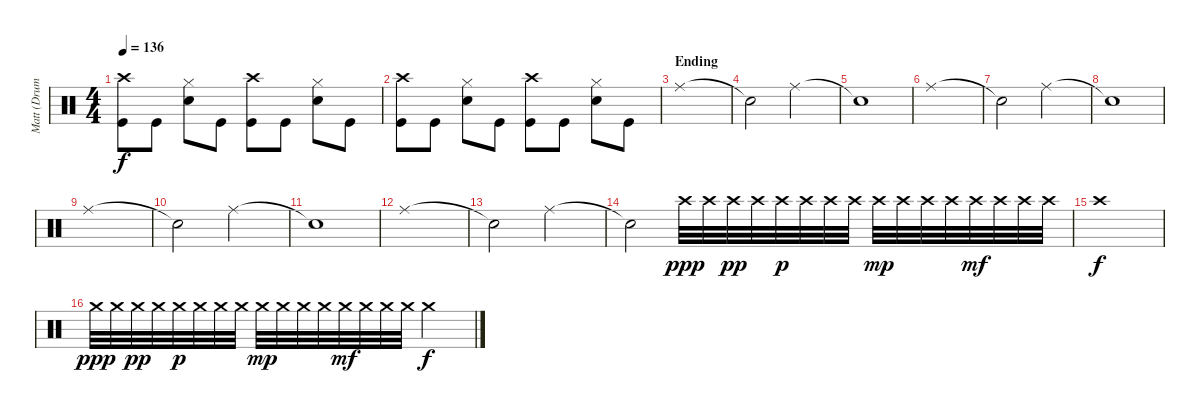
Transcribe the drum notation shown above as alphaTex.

\track ("Matt (Drums)" "Matt (Drum") {instrument percussion}
\staff {score}
\articulation defaults
\ts (4 4)
\tempo 136
\clef neutral
\ks c
("Crash high (hit)" "Kick (hit)").8{dy f} "Kick (hit)".8 ("Hi-Hat (closed)" "Electric Snare (hit)").8 "Kick (hit)".8 ("Crash high (hit)" "Kick (hit)").8 "Kick (hit)".8 ("Hi-Hat (closed)" "Electric Snare (hit)").8 "Kick (hit)".8 |
("Crash high (hit)" "Kick (hit)").8 "Kick (hit)".8 ("Hi-Hat (closed)" "Electric Snare (hit)").8 "Kick (hit)".8 ("Crash high (hit)" "Kick (hit)").8 "Kick (hit)".8 ("Hi-Hat (closed)" "Electric Snare (hit)").8 "Kick (hit)".8 |
\section ("" "Ending")
"Ride (middle)".1 |
"Snare (hit)"{t}.2 "Ride (middle)".2 |
"Snare (hit)"{t}.1 |
"Ride (middle)".1 |
"Snare (hit)"{t}.2 "Ride (middle)".2 |
"Snare (hit)"{t}.1 |
"Ride (middle)".1 |
"Snare (hit)"{t}.2 "Ride (middle)".2 |
"Snare (hit)"{t}.1 |
"Ride (middle)".1 |
"Snare (hit)"{t}.2 "Ride (middle)".2 |
"Snare (hit)"{t}.2 "Crash high (hit)".32{dy ppp} "Crash high (hit)".32 "Crash high (hit)".32{dy pp} "Crash high (hit)".32 "Crash high (hit)".32{dy p} "Crash high (hit)".32 "Crash high (hit)".32 "Crash high (hit)".32 "Crash high (hit)".32{dy mp} "Crash high (hit)".32 "Crash high (hit)".32 "Crash high (hit)".32 "Crash high (hit)".32{dy mf} "Crash high (hit)".32 "Crash high (hit)".32 "Crash high (hit)".32 |
"Crash high (hit)".1{dy f} |
"Crash medium (hit)".32{dy ppp} "Crash medium (hit)".32 "Crash medium (hit)".32{dy pp} "Crash medium (hit)".32 "Crash medium (hit)".32{dy p} "Crash medium (hit)".32 "Crash medium (hit)".32 "Crash medium (hit)".32 "Crash medium (hit)".32{dy mp} "Crash medium (hit)".32 "Crash medium (hit)".32 "Crash medium (hit)".32 "Crash medium (hit)".32{dy mf} "Crash medium (hit)".32 "Crash medium (hit)".32 "Crash medium (hit)".32 "Crash medium (hit)".2{dy f}
